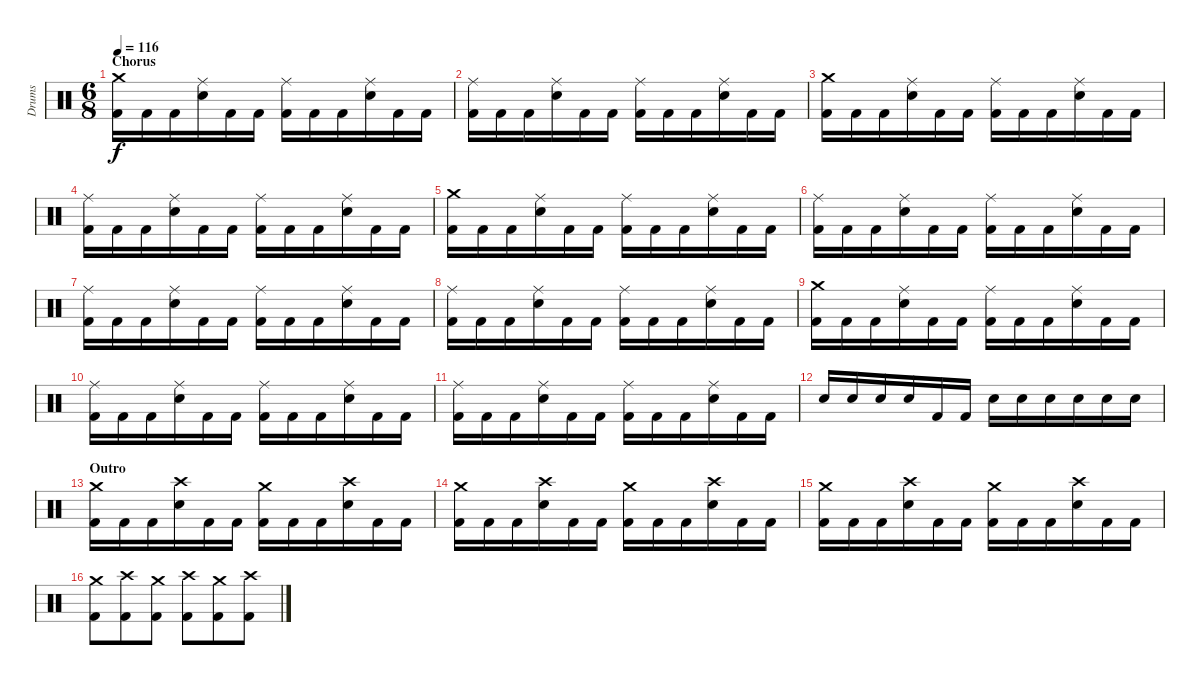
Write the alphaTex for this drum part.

\track ("Drums" "Drums") {instrument percussion}
\staff {score}
\articulation defaults
\ts (6 8)
\section ("" "Chorus")
\tempo 116
\clef neutral
\ks c
("Crash medium (hit)" "Kick (hit) 2").16{dy f} "Kick (hit) 2".16 "Kick (hit) 2".16 ("Ride (middle)" "Electric Snare (hit)").16 "Kick (hit) 2".16 "Kick (hit) 2".16 ("Ride (middle)" "Kick (hit) 2").16 "Kick (hit) 2".16 "Kick (hit) 2".16 ("Ride (middle)" "Electric Snare (hit)").16 "Kick (hit) 2".16 "Kick (hit) 2".16 |
("Ride (middle)" "Kick (hit) 2").16 "Kick (hit) 2".16 "Kick (hit) 2".16 ("Ride (middle)" "Electric Snare (hit)").16 "Kick (hit) 2".16 "Kick (hit) 2".16 ("Ride (middle)" "Kick (hit) 2").16 "Kick (hit) 2".16 "Kick (hit) 2".16 ("Ride (middle)" "Electric Snare (hit)").16 "Kick (hit) 2".16 "Kick (hit) 2".16 |
("Crash medium (hit)" "Kick (hit) 2").16 "Kick (hit) 2".16 "Kick (hit) 2".16 ("Ride (middle)" "Electric Snare (hit)").16 "Kick (hit) 2".16 "Kick (hit) 2".16 ("Ride (middle)" "Kick (hit) 2").16 "Kick (hit) 2".16 "Kick (hit) 2".16 ("Ride (middle)" "Electric Snare (hit)").16 "Kick (hit) 2".16 "Kick (hit) 2".16 |
("Ride (middle)" "Kick (hit) 2").16 "Kick (hit) 2".16 "Kick (hit) 2".16 ("Ride (middle)" "Electric Snare (hit)").16 "Kick (hit) 2".16 "Kick (hit) 2".16 ("Ride (middle)" "Kick (hit) 2").16 "Kick (hit) 2".16 "Kick (hit) 2".16 ("Ride (middle)" "Electric Snare (hit)").16 "Kick (hit) 2".16 "Kick (hit) 2".16 |
("Crash medium (hit)" "Kick (hit) 2").16 "Kick (hit) 2".16 "Kick (hit) 2".16 ("Ride (middle)" "Electric Snare (hit)").16 "Kick (hit) 2".16 "Kick (hit) 2".16 ("Ride (middle)" "Kick (hit) 2").16 "Kick (hit) 2".16 "Kick (hit) 2".16 ("Ride (middle)" "Electric Snare (hit)").16 "Kick (hit) 2".16 "Kick (hit) 2".16 |
("Ride (middle)" "Kick (hit) 2").16 "Kick (hit) 2".16 "Kick (hit) 2".16 ("Ride (middle)" "Electric Snare (hit)").16 "Kick (hit) 2".16 "Kick (hit) 2".16 ("Ride (middle)" "Kick (hit) 2").16 "Kick (hit) 2".16 "Kick (hit) 2".16 ("Ride (middle)" "Electric Snare (hit)").16 "Kick (hit) 2".16 "Kick (hit) 2".16 |
("Ride (middle)" "Kick (hit) 2").16 "Kick (hit) 2".16 "Kick (hit) 2".16 ("Ride (middle)" "Electric Snare (hit)").16 "Kick (hit) 2".16 "Kick (hit) 2".16 ("Ride (middle)" "Kick (hit) 2").16 "Kick (hit) 2".16 "Kick (hit) 2".16 ("Ride (middle)" "Electric Snare (hit)").16 "Kick (hit) 2".16 "Kick (hit) 2".16 |
("Ride (middle)" "Kick (hit) 2").16 "Kick (hit) 2".16 "Kick (hit) 2".16 ("Ride (middle)" "Electric Snare (hit)").16 "Kick (hit) 2".16 "Kick (hit) 2".16 ("Ride (middle)" "Kick (hit) 2").16 "Kick (hit) 2".16 "Kick (hit) 2".16 ("Ride (middle)" "Electric Snare (hit)").16 "Kick (hit) 2".16 "Kick (hit) 2".16 |
("Crash medium (hit)" "Kick (hit) 2").16 "Kick (hit) 2".16 "Kick (hit) 2".16 ("Ride (middle)" "Electric Snare (hit)").16 "Kick (hit) 2".16 "Kick (hit) 2".16 ("Ride (middle)" "Kick (hit) 2").16 "Kick (hit) 2".16 "Kick (hit) 2".16 ("Ride (middle)" "Electric Snare (hit)").16 "Kick (hit) 2".16 "Kick (hit) 2".16 |
("Ride (middle)" "Kick (hit) 2").16 "Kick (hit) 2".16 "Kick (hit) 2".16 ("Ride (middle)" "Electric Snare (hit)").16 "Kick (hit) 2".16 "Kick (hit) 2".16 ("Ride (middle)" "Kick (hit) 2").16 "Kick (hit) 2".16 "Kick (hit) 2".16 ("Ride (middle)" "Electric Snare (hit)").16 "Kick (hit) 2".16 "Kick (hit) 2".16 |
("Ride (middle)" "Kick (hit) 2").16 "Kick (hit) 2".16 "Kick (hit) 2".16 ("Ride (middle)" "Electric Snare (hit)").16 "Kick (hit) 2".16 "Kick (hit) 2".16 ("Ride (middle)" "Kick (hit) 2").16 "Kick (hit) 2".16 "Kick (hit) 2".16 ("Ride (middle)" "Electric Snare (hit)").16 "Kick (hit) 2".16 "Kick (hit) 2".16 |
"Electric Snare (hit)".16 "Electric Snare (hit)".16 "Electric Snare (hit)".16 "Electric Snare (hit)".16 "Kick (hit) 2".16 "Kick (hit) 2".16 "Electric Snare (hit)".16 "Electric Snare (hit)".16 "Electric Snare (hit)".16 "Electric Snare (hit)".16 "Electric Snare (hit)".16 "Electric Snare (hit)".16 |
\section ("" "Outro")
("Crash medium (hit)" "Kick (hit) 2").16 "Kick (hit) 2".16 "Kick (hit) 2".16 ("Crash high (hit)" "Electric Snare (hit)").16 "Kick (hit) 2".16 "Kick (hit) 2".16 ("Crash medium (hit)" "Kick (hit) 2").16 "Kick (hit) 2".16 "Kick (hit) 2".16 ("Crash high (hit)" "Electric Snare (hit)").16 "Kick (hit) 2".16 "Kick (hit) 2".16 |
("Crash medium (hit)" "Kick (hit) 2").16 "Kick (hit) 2".16 "Kick (hit) 2".16 ("Crash high (hit)" "Electric Snare (hit)").16 "Kick (hit) 2".16 "Kick (hit) 2".16 ("Crash medium (hit)" "Kick (hit) 2").16 "Kick (hit) 2".16 "Kick (hit) 2".16 ("Crash high (hit)" "Electric Snare (hit)").16 "Kick (hit) 2".16 "Kick (hit) 2".16 |
("Crash medium (hit)" "Kick (hit) 2").16 "Kick (hit) 2".16 "Kick (hit) 2".16 ("Crash high (hit)" "Electric Snare (hit)").16 "Kick (hit) 2".16 "Kick (hit) 2".16 ("Crash medium (hit)" "Kick (hit) 2").16 "Kick (hit) 2".16 "Kick (hit) 2".16 ("Crash high (hit)" "Electric Snare (hit)").16 "Kick (hit) 2".16 "Kick (hit) 2".16 |
("Crash medium (hit)" "Kick (hit) 2").8 ("Crash high (hit)" "Kick (hit) 2").8 ("Crash medium (hit)" "Kick (hit) 2").8 ("Crash high (hit)" "Kick (hit) 2").8 ("Crash medium (hit)" "Kick (hit) 2").8 ("Crash high (hit)" "Kick (hit) 2").8
